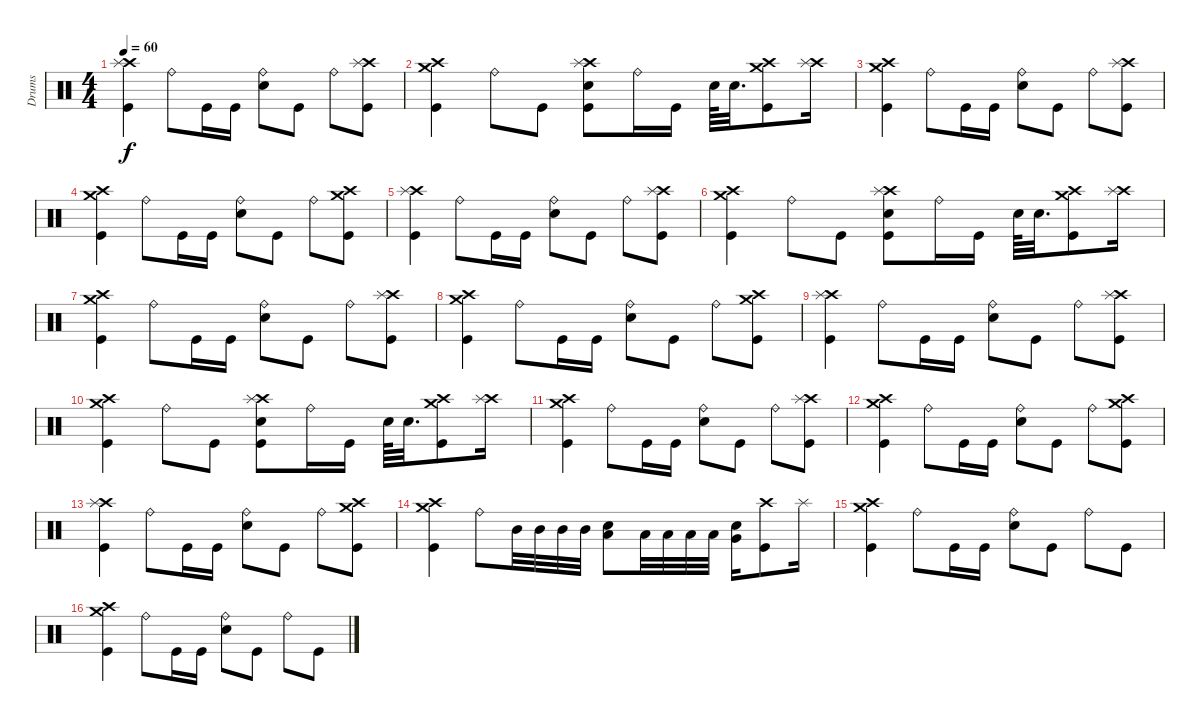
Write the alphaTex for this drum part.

\track ("Drums" "Drums") {instrument percussion}
\staff {score}
\articulation defaults
\ts (4 4)
\tempo 60
\clef neutral
\ks c
("Crash high (hit)" "Splash (hit)" "Kick (hit)").4{dy f} "Ride (bell)".8 "Kick (hit)".16 "Kick (hit)".16 ("Ride (bell)" "Electric Snare (hit)").8 "Kick (hit)".8 "Ride (bell)".8 ("Crash high (hit)" "Splash (hit)" "Kick (hit)").8 |
("Crash high (hit)" "Crash medium (hit)" "Kick (hit)").4 "Ride (bell)".8 "Kick (hit)".8 ("Crash high (hit)" "Splash (hit)" "Electric Snare (hit)" "Kick (hit)").8 "Ride (bell)".16 "Kick (hit)".16 "Electric Snare (hit)".64 "Electric Snare (hit)".32{d} ("Crash high (hit)" "Crash medium (hit)" "Kick (hit)").8 ("Crash high (hit)" "Splash (hit)").16 |
("Crash high (hit)" "Crash medium (hit)" "Kick (hit)").4 "Ride (bell)".8 "Kick (hit)".16 "Kick (hit)".16 ("Ride (bell)" "Electric Snare (hit)").8 "Kick (hit)".8 "Ride (bell)".8 ("Crash high (hit)" "Splash (hit)" "Kick (hit)").8 |
("Crash high (hit)" "Crash medium (hit)" "Kick (hit)").4 "Ride (bell)".8 "Kick (hit)".16 "Kick (hit)".16 ("Ride (bell)" "Electric Snare (hit)").8 "Kick (hit)".8 "Ride (bell)".8 ("Crash high (hit)" "Crash medium (hit)" "Kick (hit)").8 |
("Crash high (hit)" "Splash (hit)" "Kick (hit)").4 "Ride (bell)".8 "Kick (hit)".16 "Kick (hit)".16 ("Ride (bell)" "Electric Snare (hit)").8 "Kick (hit)".8 "Ride (bell)".8 ("Crash high (hit)" "Splash (hit)" "Kick (hit)").8 |
("Crash high (hit)" "Crash medium (hit)" "Kick (hit)").4 "Ride (bell)".8 "Kick (hit)".8 ("Crash high (hit)" "Splash (hit)" "Electric Snare (hit)" "Kick (hit)").8 "Ride (bell)".16 "Kick (hit)".16 "Electric Snare (hit)".64 "Electric Snare (hit)".32{d} ("Crash high (hit)" "Crash medium (hit)" "Kick (hit)").8 ("Crash high (hit)" "Splash (hit)").16 |
("Crash high (hit)" "Crash medium (hit)" "Kick (hit)").4 "Ride (bell)".8 "Kick (hit)".16 "Kick (hit)".16 ("Ride (bell)" "Electric Snare (hit)").8 "Kick (hit)".8 "Ride (bell)".8 ("Crash high (hit)" "Splash (hit)" "Kick (hit)").8 |
("Crash high (hit)" "Crash medium (hit)" "Kick (hit)").4 "Ride (bell)".8 "Kick (hit)".16 "Kick (hit)".16 ("Ride (bell)" "Electric Snare (hit)").8 "Kick (hit)".8 "Ride (bell)".8 ("Crash high (hit)" "Crash medium (hit)" "Kick (hit)").8 |
("Crash high (hit)" "Splash (hit)" "Kick (hit)").4 "Ride (bell)".8 "Kick (hit)".16 "Kick (hit)".16 ("Ride (bell)" "Electric Snare (hit)").8 "Kick (hit)".8 "Ride (bell)".8 ("Crash high (hit)" "Splash (hit)" "Kick (hit)").8 |
("Crash high (hit)" "Crash medium (hit)" "Kick (hit)").4 "Ride (bell)".8 "Kick (hit)".8 ("Crash high (hit)" "Splash (hit)" "Electric Snare (hit)" "Kick (hit)").8 "Ride (bell)".16 "Kick (hit)".16 "Electric Snare (hit)".64 "Electric Snare (hit)".32{d} ("Crash high (hit)" "Crash medium (hit)" "Kick (hit)").8 ("Crash high (hit)" "Splash (hit)").16 |
("Crash high (hit)" "Crash medium (hit)" "Kick (hit)").4 "Ride (bell)".8 "Kick (hit)".16 "Kick (hit)".16 ("Ride (bell)" "Electric Snare (hit)").8 "Kick (hit)".8 "Ride (bell)".8 ("Crash high (hit)" "Splash (hit)" "Kick (hit)").8 |
("Crash high (hit)" "Crash medium (hit)" "Kick (hit)").4 "Ride (bell)".8 "Kick (hit)".16 "Kick (hit)".16 ("Ride (bell)" "Electric Snare (hit)").8 "Kick (hit)".8 "Ride (bell)".8 ("Crash high (hit)" "Crash medium (hit)" "Kick (hit)").8 |
("Crash high (hit)" "Splash (hit)" "Kick (hit)").4 "Ride (bell)".8 "Kick (hit)".16 "Kick (hit)".16 ("Ride (bell)" "Electric Snare (hit)").8 "Kick (hit)".8 "Ride (bell)".8 ("Crash high (hit)" "Crash medium (hit)" "Kick (hit)").8 |
("Crash high (hit)" "Crash medium (hit)" "Kick (hit)").4 "Ride (bell)".8 "Mid Tom (hit)".32 "Mid Tom (hit)".32 "Mid Tom (hit)".32 "Mid Tom (hit)".32 ("Low Tom (hit)" "Electric Snare (hit)").8 "Low Tom (hit)".32 "Low Tom (hit)".32 "Low Tom (hit)".32 "Low Tom (hit)".32 ("Very Low Tom (hit)" "Electric Snare (hit)").16 ("Crash high (hit)" "Kick (hit)").8 "Splash (hit)".16 |
("Crash high (hit)" "Crash medium (hit)" "Kick (hit)").4 "Ride (bell)".8 "Kick (hit)".16 "Kick (hit)".16 ("Ride (bell)" "Electric Snare (hit)").8 "Kick (hit)".8 "Ride (bell)".8 "Kick (hit)".8 |
("Crash high (hit)" "Crash medium (hit)" "Kick (hit)").4 "Ride (bell)".8 "Kick (hit)".16 "Kick (hit)".16 ("Ride (bell)" "Electric Snare (hit)").8 "Kick (hit)".8 "Ride (bell)".8 "Kick (hit)".8
